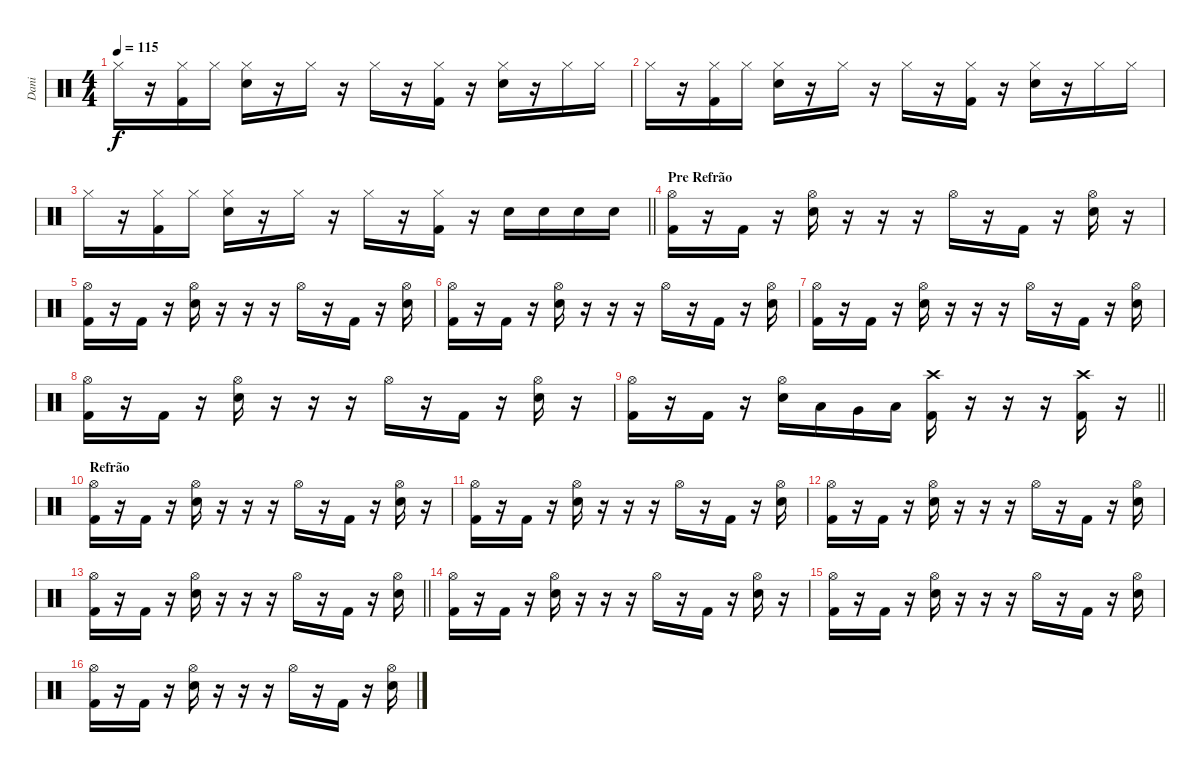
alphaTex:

\track ("Dani" "Dani") {instrument percussion}
\staff {score}
\articulation defaults
\ts (4 4)
\tempo 115
\clef neutral
\ks c "Hi-Hat (closed)".16{dy f}
r.16 ("Hi-Hat (closed)" "Kick (hit) 2").16 "Hi-Hat (closed)".16 ("Hi-Hat (closed)" "Snare (hit) 2").16 r.16 "Hi-Hat (closed)".16 r.16 "Hi-Hat (closed)".16 r.16 ("Hi-Hat (closed)" "Kick (hit) 2").16 r.16 ("Hi-Hat (closed)" "Snare (hit) 2").16 r.16 "Hi-Hat (closed)".16 "Hi-Hat (closed)".16 |
"Hi-Hat (closed)".16 r.16 ("Hi-Hat (closed)" "Kick (hit) 2").16 "Hi-Hat (closed)".16 ("Hi-Hat (closed)" "Snare (hit) 2").16 r.16 "Hi-Hat (closed)".16 r.16 "Hi-Hat (closed)".16 r.16 ("Hi-Hat (closed)" "Kick (hit) 2").16 r.16 ("Hi-Hat (closed)" "Snare (hit) 2").16 r.16 "Hi-Hat (closed)".16 "Hi-Hat (closed)".16 |
\barLineRight lightlight "Hi-Hat (closed)".16
r.16 ("Hi-Hat (closed)" "Kick (hit) 2").16 "Hi-Hat (closed)".16 ("Hi-Hat (closed)" "Snare (hit) 2").16 r.16 "Hi-Hat (closed)".16 r.16 "Hi-Hat (closed)".16 r.16 ("Hi-Hat (closed)" "Kick (hit) 2").16 r.16 "Snare (hit) 2".16 "Snare (hit) 2".16 "Snare (hit) 2".16 "Snare (hit) 2".16 |
\section ("" "Pre Refrão")
("Hi-Hat (open)" "Kick (hit) 2").16 r.16 "Kick (hit) 2".16 r.16 ("Hi-Hat (open)" "Snare (hit) 2").16 r.16 r.16 r.16 "Hi-Hat (open)".16 r.16 "Kick (hit) 2".16 r.16 ("Hi-Hat (open)" "Snare (hit) 2").16 r.16 |
("Hi-Hat (open)" "Kick (hit) 2").16 r.16 "Kick (hit) 2".16 r.16 ("Hi-Hat (open)" "Snare (hit) 2").16 r.16 r.16 r.16 "Hi-Hat (open)".16 r.16 "Kick (hit) 2".16 r.16 ("Hi-Hat (open)" "Snare (hit) 2").16 |
("Hi-Hat (open)" "Kick (hit) 2").16 r.16 "Kick (hit) 2".16 r.16 ("Hi-Hat (open)" "Snare (hit) 2").16 r.16 r.16 r.16 "Hi-Hat (open)".16 r.16 "Kick (hit) 2".16 r.16 ("Hi-Hat (open)" "Snare (hit) 2").16 |
("Hi-Hat (open)" "Kick (hit) 2").16 r.16 "Kick (hit) 2".16 r.16 ("Hi-Hat (open)" "Snare (hit) 2").16 r.16 r.16 r.16 "Hi-Hat (open)".16 r.16 "Kick (hit) 2".16 r.16 ("Hi-Hat (open)" "Snare (hit) 2").16 |
("Hi-Hat (open)" "Kick (hit) 2").16 r.16 "Kick (hit) 2".16 r.16 ("Hi-Hat (open)" "Snare (hit) 2").16 r.16 r.16 r.16 "Hi-Hat (open)".16 r.16 "Kick (hit) 2".16 r.16 ("Hi-Hat (open)" "Snare (hit) 2").16 r.16 |
\barLineRight lightlight
("Hi-Hat (open)" "Kick (hit) 2").16 r.16 "Kick (hit) 2".16 r.16 ("Hi-Hat (open)" "Snare (hit) 2").16 "Low Floor Tom (hit)".16 "Very Low Tom (hit)".16 "Low Tom (hit)".16 ("Crash high (hit)" "Kick (hit) 2").16 r.16 r.16 r.16 ("Crash high (hit)" "Kick (hit) 2").16 r.16 |
\section ("" "Refrão")
("Hi-Hat (open)" "Kick (hit) 2").16 r.16 "Kick (hit) 2".16 r.16 ("Hi-Hat (open)" "Snare (hit) 2").16 r.16 r.16 r.16 "Hi-Hat (open)".16 r.16 "Kick (hit) 2".16 r.16 ("Hi-Hat (open)" "Snare (hit) 2").16 r.16 |
("Hi-Hat (open)" "Kick (hit) 2").16 r.16 "Kick (hit) 2".16 r.16 ("Hi-Hat (open)" "Snare (hit) 2").16 r.16 r.16 r.16 "Hi-Hat (open)".16 r.16 "Kick (hit) 2".16 r.16 ("Hi-Hat (open)" "Snare (hit) 2").16 |
("Hi-Hat (open)" "Kick (hit) 2").16 r.16 "Kick (hit) 2".16 r.16 ("Hi-Hat (open)" "Snare (hit) 2").16 r.16 r.16 r.16 "Hi-Hat (open)".16 r.16 "Kick (hit) 2".16 r.16 ("Hi-Hat (open)" "Snare (hit) 2").16 |
\barLineRight lightlight
("Hi-Hat (open)" "Kick (hit) 2").16 r.16 "Kick (hit) 2".16 r.16 ("Hi-Hat (open)" "Snare (hit) 2").16 r.16 r.16 r.16 "Hi-Hat (open)".16 r.16 "Kick (hit) 2".16 r.16 ("Hi-Hat (open)" "Snare (hit) 2").16 |
("Hi-Hat (open)" "Kick (hit) 2").16 r.16 "Kick (hit) 2".16 r.16 ("Hi-Hat (open)" "Snare (hit) 2").16 r.16 r.16 r.16 "Hi-Hat (open)".16 r.16 "Kick (hit) 2".16 r.16 ("Hi-Hat (open)" "Snare (hit) 2").16 r.16 |
("Hi-Hat (open)" "Kick (hit) 2").16 r.16 "Kick (hit) 2".16 r.16 ("Hi-Hat (open)" "Snare (hit) 2").16 r.16 r.16 r.16 "Hi-Hat (open)".16 r.16 "Kick (hit) 2".16 r.16 ("Hi-Hat (open)" "Snare (hit) 2").16 |
("Hi-Hat (open)" "Kick (hit) 2").16 r.16 "Kick (hit) 2".16 r.16 ("Hi-Hat (open)" "Snare (hit) 2").16 r.16 r.16 r.16 "Hi-Hat (open)".16 r.16 "Kick (hit) 2".16 r.16 ("Hi-Hat (open)" "Snare (hit) 2").16
